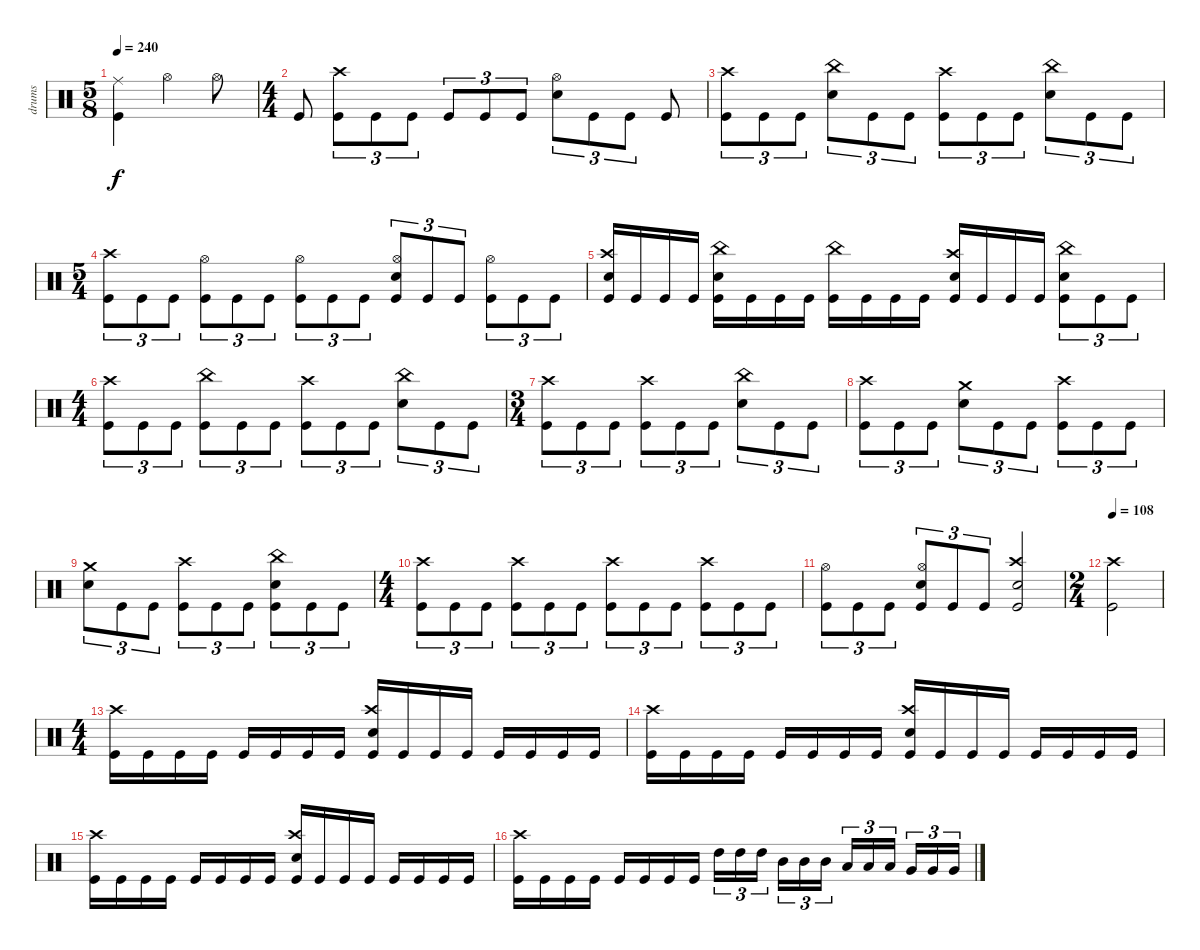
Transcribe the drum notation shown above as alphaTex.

\track ("drums" "drums") {instrument percussion}
\staff {score}
\articulation defaults
\ts (5 8)
\tempo 240
\clef neutral
\ks c
("Ride (middle)" "Kick (hit)").4{dy f} "Hi-Hat (open)".4 "Hi-Hat (open)".8 |
\ts (4 4)
"Kick (hit)".8 ("Crash high (hit)" "Kick (hit)").8{tu (3 2)} "Kick (hit)".8{tu (3 2)} "Kick (hit)".8{tu (3 2)} "Kick (hit)".8{tu (3 2)} "Kick (hit)".8{tu (3 2)} "Kick (hit)".8{tu (3 2)} ("Hi-Hat (open)" "Electric Snare (hit)").8{tu (3 2)} "Kick (hit)".8{tu (3 2)} "Kick (hit)".8{tu (3 2)} "Kick (hit)".8 |
("Crash high (hit)" "Kick (hit)").8{tu (3 2)} "Kick (hit)".8{tu (3 2)} "Kick (hit)".8{tu (3 2)} ("China (hit)" "Electric Snare (hit)").8{tu (3 2)} "Kick (hit)".8{tu (3 2)} "Kick (hit)".8{tu (3 2)} ("Crash high (hit)" "Kick (hit)").8{tu (3 2)} "Kick (hit)".8{tu (3 2)} "Kick (hit)".8{tu (3 2)} ("China (hit)" "Electric Snare (hit)").8{tu (3 2)} "Kick (hit)".8{tu (3 2)} "Kick (hit)".8{tu (3 2)} |
\ts (5 4)
("Crash high (hit)" "Kick (hit)").8{tu (3 2)} "Kick (hit)".8{tu (3 2)} "Kick (hit)".8{tu (3 2)} ("Hi-Hat (open)" "Kick (hit)").8{tu (3 2)} "Kick (hit)".8{tu (3 2)} "Kick (hit)".8{tu (3 2)} ("Hi-Hat (open)" "Kick (hit)").8{tu (3 2)} "Kick (hit)".8{tu (3 2)} "Kick (hit)".8{tu (3 2)} ("Hi-Hat (open)" "Electric Snare (hit)" "Kick (hit)").8{tu (3 2)} "Kick (hit)".8{tu (3 2)} "Kick (hit)".8{tu (3 2)} ("Hi-Hat (open)" "Kick (hit)").8{tu (3 2)} "Kick (hit)".8{tu (3 2)} "Kick (hit)".8{tu (3 2)} |
("Crash high (hit)" "Electric Snare (hit)" "Kick (hit)").16 "Kick (hit)".16 "Kick (hit)".16 "Kick (hit)".16 ("China (hit)" "Electric Snare (hit)" "Kick (hit)").16 "Kick (hit)".16 "Kick (hit)".16 "Kick (hit)".16 ("China (hit)" "Kick (hit)").16 "Kick (hit)".16 "Kick (hit)".16 "Kick (hit)".16 ("Crash high (hit)" "Electric Snare (hit)" "Kick (hit)").16 "Kick (hit)".16 "Kick (hit)".16 "Kick (hit)".16 ("China (hit)" "Electric Snare (hit)" "Kick (hit)").8{tu (3 2)} "Kick (hit)".8{tu (3 2)} "Kick (hit)".8{tu (3 2)} |
\ts (4 4)
("Crash high (hit)" "Kick (hit)").8{tu (3 2)} "Kick (hit)".8{tu (3 2)} "Kick (hit)".8{tu (3 2)} ("China (hit)" "Kick (hit)").8{tu (3 2)} "Kick (hit)".8{tu (3 2)} "Kick (hit)".8{tu (3 2)} ("Crash high (hit)" "Kick (hit)").8{tu (3 2)} "Kick (hit)".8{tu (3 2)} "Kick (hit)".8{tu (3 2)} ("China (hit)" "Electric Snare (hit)").8{tu (3 2)} "Kick (hit)".8{tu (3 2)} "Kick (hit)".8{tu (3 2)} |
\ts (3 4)
("Crash high (hit)" "Kick (hit)").8{tu (3 2)} "Kick (hit)".8{tu (3 2)} "Kick (hit)".8{tu (3 2)} ("Crash high (hit)" "Kick (hit)").8{tu (3 2)} "Kick (hit)".8{tu (3 2)} "Kick (hit)".8{tu (3 2)} ("China (hit)" "Electric Snare (hit)").8{tu (3 2)} "Kick (hit)".8{tu (3 2)} "Kick (hit)".8{tu (3 2)} |
("Crash high (hit)" "Kick (hit)").8{tu (3 2)} "Kick (hit)".8{tu (3 2)} "Kick (hit)".8{tu (3 2)} ("Crash medium (hit)" "Electric Snare (hit)").8{tu (3 2)} "Kick (hit)".8{tu (3 2)} "Kick (hit)".8{tu (3 2)} ("Crash high (hit)" "Kick (hit)").8{tu (3 2)} "Kick (hit)".8{tu (3 2)} "Kick (hit)".8{tu (3 2)} |
("Crash medium (hit)" "Electric Snare (hit)").8{tu (3 2)} "Kick (hit)".8{tu (3 2)} "Kick (hit)".8{tu (3 2)} ("Crash high (hit)" "Kick (hit)").8{tu (3 2)} "Kick (hit)".8{tu (3 2)} "Kick (hit)".8{tu (3 2)} ("China (hit)" "Electric Snare (hit)" "Kick (hit)").8{tu (3 2)} "Kick (hit)".8{tu (3 2)} "Kick (hit)".8{tu (3 2)} |
\ts (4 4)
("Crash high (hit)" "Kick (hit)").8{tu (3 2)} "Kick (hit)".8{tu (3 2)} "Kick (hit)".8{tu (3 2)} ("Crash high (hit)" "Kick (hit)").8{tu (3 2)} "Kick (hit)".8{tu (3 2)} "Kick (hit)".8{tu (3 2)} ("Crash high (hit)" "Kick (hit)").8{tu (3 2)} "Kick (hit)".8{tu (3 2)} "Kick (hit)".8{tu (3 2)} ("Crash high (hit)" "Kick (hit)").8{tu (3 2)} "Kick (hit)".8{tu (3 2)} "Kick (hit)".8{tu (3 2)} |
("Hi-Hat (open)" "Kick (hit)").8{tu (3 2)} "Kick (hit)".8{tu (3 2)} "Kick (hit)".8{tu (3 2)} ("Hi-Hat (open)" "Electric Snare (hit)" "Kick (hit)").8{tu (3 2)} "Kick (hit)".8{tu (3 2)} "Kick (hit)".8{tu (3 2)} ("Crash high (hit)" "Electric Snare (hit)" "Kick (hit)").2 |
\ts (2 4)
\tempo 108
("Crash high (hit)" "Kick (hit)").2 |
\ts (4 4)
("Crash high (hit)" "Kick (hit)").16 "Kick (hit)".16 "Kick (hit)".16 "Kick (hit)".16 "Kick (hit)".16 "Kick (hit)".16 "Kick (hit)".16 "Kick (hit)".16 ("Crash high (hit)" "Electric Snare (hit)" "Kick (hit)").16 "Kick (hit)".16 "Kick (hit)".16 "Kick (hit)".16 "Kick (hit)".16 "Kick (hit)".16 "Kick (hit)".16 "Kick (hit)".16 |
("Crash high (hit)" "Kick (hit)").16 "Kick (hit)".16 "Kick (hit)".16 "Kick (hit)".16 "Kick (hit)".16 "Kick (hit)".16 "Kick (hit)".16 "Kick (hit)".16 ("Crash high (hit)" "Electric Snare (hit)" "Kick (hit)").16 "Kick (hit)".16 "Kick (hit)".16 "Kick (hit)".16 "Kick (hit)".16 "Kick (hit)".16 "Kick (hit)".16 "Kick (hit)".16 |
("Crash high (hit)" "Kick (hit)").16 "Kick (hit)".16 "Kick (hit)".16 "Kick (hit)".16 "Kick (hit)".16 "Kick (hit)".16 "Kick (hit)".16 "Kick (hit)".16 ("Crash high (hit)" "Electric Snare (hit)" "Kick (hit)").16 "Kick (hit)".16 "Kick (hit)".16 "Kick (hit)".16 "Kick (hit)".16 "Kick (hit)".16 "Kick (hit)".16 "Kick (hit)".16 |
("Crash high (hit)" "Kick (hit)").16 "Kick (hit)".16 "Kick (hit)".16 "Kick (hit)".16 "Kick (hit)".16 "Kick (hit)".16 "Kick (hit)".16 "Kick (hit)".16 "High Tom (hit)".16{tu (3 2)} "High Tom (hit)".16{tu (3 2)} "High Tom (hit)".16{tu (3 2) beam splitsecondary} "Mid Tom (hit)".16{tu (3 2)} "Mid Tom (hit)".16{tu (3 2)} "Mid Tom (hit)".16{tu (3 2)} "Low Tom (hit)".16{tu (3 2)} "Low Tom (hit)".16{tu (3 2)} "Low Tom (hit)".16{tu (3 2) beam splitsecondary} "Very Low Tom (hit)".16{tu (3 2)} "Very Low Tom (hit)".16{tu (3 2)} "Very Low Tom (hit)".16{tu (3 2)}
